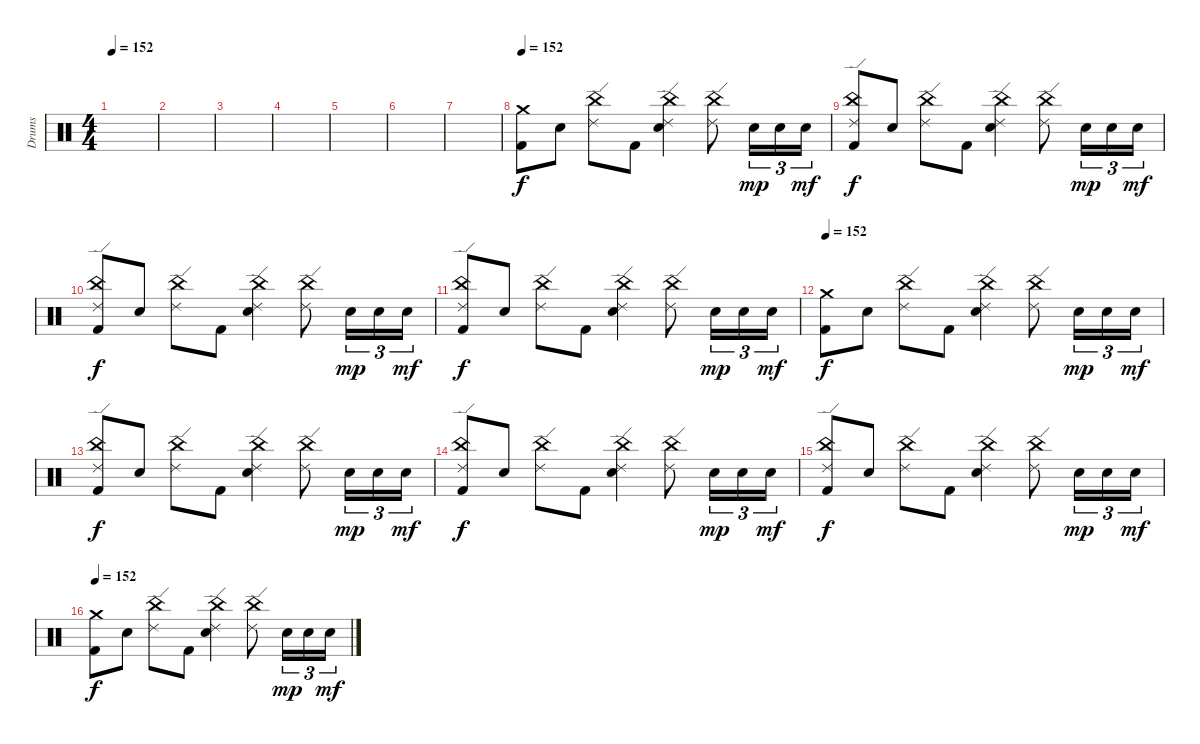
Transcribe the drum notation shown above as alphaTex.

\track ("Drums" "Drums") {instrument percussion}
\staff {score}
\articulation defaults
\ts (4 4)
\tempo 152
\clef neutral
\ks c
|
|
|
|
|
|
|
\tempo 152
("Crash medium (hit)" "Kick (hit) 2").8 "Snare (hit) 2".8 ("China (hit)" "Ride (edge) 2").8 "Kick (hit) 2".8 ("China (hit)" "Ride (edge) 2" "Snare (hit) 2").4 ("China (hit)" "Ride (edge) 2").8 "Snare (hit) 2".16{tu (3 2) dy mp} "Snare (hit) 2".16{tu (3 2)} "Snare (hit) 2".16{tu (3 2) dy mf} |
("China (hit)" "Ride (edge) 2" "Kick (hit) 2").8{dy f} "Snare (hit) 2".8 ("China (hit)" "Ride (edge) 2").8 "Kick (hit) 2".8 ("China (hit)" "Ride (edge) 2" "Snare (hit) 2").4 ("China (hit)" "Ride (edge) 2").8 "Snare (hit) 2".16{tu (3 2) dy mp} "Snare (hit) 2".16{tu (3 2)} "Snare (hit) 2".16{tu (3 2) dy mf} |
("China (hit)" "Ride (edge) 2" "Kick (hit) 2").8{dy f} "Snare (hit) 2".8 ("China (hit)" "Ride (edge) 2").8 "Kick (hit) 2".8 ("China (hit)" "Ride (edge) 2" "Snare (hit) 2").4 ("China (hit)" "Ride (edge) 2").8 "Snare (hit) 2".16{tu (3 2) dy mp} "Snare (hit) 2".16{tu (3 2)} "Snare (hit) 2".16{tu (3 2) dy mf} |
("China (hit)" "Ride (edge) 2" "Kick (hit) 2").8{dy f} "Snare (hit) 2".8 ("China (hit)" "Ride (edge) 2").8 "Kick (hit) 2".8 ("China (hit)" "Ride (edge) 2" "Snare (hit) 2").4 ("China (hit)" "Ride (edge) 2").8 "Snare (hit) 2".16{tu (3 2) dy mp} "Snare (hit) 2".16{tu (3 2)} "Snare (hit) 2".16{tu (3 2) dy mf} |
\tempo 152
("Crash medium (hit)" "Kick (hit) 2").8{dy f} "Snare (hit) 2".8 ("China (hit)" "Ride (edge) 2").8 "Kick (hit) 2".8 ("China (hit)" "Ride (edge) 2" "Snare (hit) 2").4 ("China (hit)" "Ride (edge) 2").8 "Snare (hit) 2".16{tu (3 2) dy mp} "Snare (hit) 2".16{tu (3 2)} "Snare (hit) 2".16{tu (3 2) dy mf} |
("China (hit)" "Ride (edge) 2" "Kick (hit) 2").8{dy f} "Snare (hit) 2".8 ("China (hit)" "Ride (edge) 2").8 "Kick (hit) 2".8 ("China (hit)" "Ride (edge) 2" "Snare (hit) 2").4 ("China (hit)" "Ride (edge) 2").8 "Snare (hit) 2".16{tu (3 2) dy mp} "Snare (hit) 2".16{tu (3 2)} "Snare (hit) 2".16{tu (3 2) dy mf} |
("China (hit)" "Ride (edge) 2" "Kick (hit) 2").8{dy f} "Snare (hit) 2".8 ("China (hit)" "Ride (edge) 2").8 "Kick (hit) 2".8 ("China (hit)" "Ride (edge) 2" "Snare (hit) 2").4 ("China (hit)" "Ride (edge) 2").8 "Snare (hit) 2".16{tu (3 2) dy mp} "Snare (hit) 2".16{tu (3 2)} "Snare (hit) 2".16{tu (3 2) dy mf} |
("China (hit)" "Ride (edge) 2" "Kick (hit) 2").8{dy f} "Snare (hit) 2".8 ("China (hit)" "Ride (edge) 2").8 "Kick (hit) 2".8 ("China (hit)" "Ride (edge) 2" "Snare (hit) 2").4 ("China (hit)" "Ride (edge) 2").8 "Snare (hit) 2".16{tu (3 2) dy mp} "Snare (hit) 2".16{tu (3 2)} "Snare (hit) 2".16{tu (3 2) dy mf} |
\tempo 152
("Crash medium (hit)" "Kick (hit) 2").8{dy f} "Snare (hit) 2".8 ("China (hit)" "Ride (edge) 2").8 "Kick (hit) 2".8 ("China (hit)" "Ride (edge) 2" "Snare (hit) 2").4 ("China (hit)" "Ride (edge) 2").8 "Snare (hit) 2".16{tu (3 2) dy mp} "Snare (hit) 2".16{tu (3 2)} "Snare (hit) 2".16{tu (3 2) dy mf}
